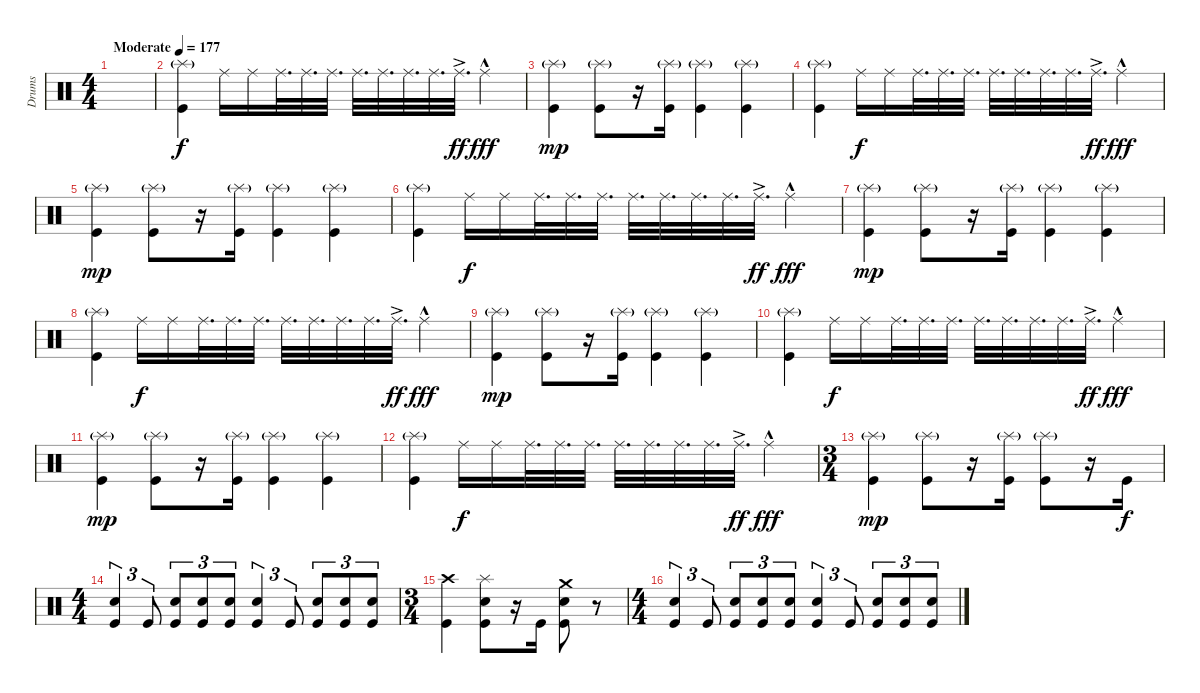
\track ("Drums" "Drums") {instrument percussion}
\staff {score}
\articulation defaults
\ts (4 4)
\tempo (177 "Moderate")
\clef neutral
\ks c
|
("Splash (hit)"{g} "Kick (hit)").4 "Ride (middle)".16{dy f} "Ride (middle)".16 "Ride (middle)".32{d} "Ride (middle)".32{d} "Ride (middle)".32{d} "Ride (middle)".32{d} "Ride (middle)".32{d} "Ride (middle)".32{d} "Ride (middle)".32{d} "Ride (middle)"{ac}.32{d dy ff} "Ride (middle)"{hac}.4{dy fff} |
("Splash (hit)"{g} "Kick (hit)").4{dy mp} ("Splash (hit)"{g} "Kick (hit)").8 r.16 ("Splash (hit)"{g} "Kick (hit)").16 ("Splash (hit)"{g} "Kick (hit)").4 ("Splash (hit)"{g} "Kick (hit)").4 |
("Splash (hit)"{g} "Kick (hit)").4 "Ride (middle)".16{dy f} "Ride (middle)".16 "Ride (middle)".32{d} "Ride (middle)".32{d} "Ride (middle)".32{d} "Ride (middle)".32{d} "Ride (middle)".32{d} "Ride (middle)".32{d} "Ride (middle)".32{d} "Ride (middle)"{ac}.32{d dy ff} "Ride (middle)"{hac}.4{dy fff} |
("Splash (hit)"{g} "Kick (hit)").4{dy mp} ("Splash (hit)"{g} "Kick (hit)").8 r.16 ("Splash (hit)"{g} "Kick (hit)").16 ("Splash (hit)"{g} "Kick (hit)").4 ("Splash (hit)"{g} "Kick (hit)").4 |
("Splash (hit)"{g} "Kick (hit)").4 "Ride (middle)".16{dy f} "Ride (middle)".16 "Ride (middle)".32{d} "Ride (middle)".32{d} "Ride (middle)".32{d} "Ride (middle)".32{d} "Ride (middle)".32{d} "Ride (middle)".32{d} "Ride (middle)".32{d} "Ride (middle)"{ac}.32{d dy ff} "Ride (middle)"{hac}.4{dy fff} |
("Splash (hit)"{g} "Kick (hit)").4{dy mp} ("Splash (hit)"{g} "Kick (hit)").8 r.16 ("Splash (hit)"{g} "Kick (hit)").16 ("Splash (hit)"{g} "Kick (hit)").4 ("Splash (hit)"{g} "Kick (hit)").4 |
("Splash (hit)"{g} "Kick (hit)").4 "Ride (middle)".16{dy f} "Ride (middle)".16 "Ride (middle)".32{d} "Ride (middle)".32{d} "Ride (middle)".32{d} "Ride (middle)".32{d} "Ride (middle)".32{d} "Ride (middle)".32{d} "Ride (middle)".32{d} "Ride (middle)"{ac}.32{d dy ff} "Ride (middle)"{hac}.4{dy fff} |
("Splash (hit)"{g} "Kick (hit)").4{dy mp} ("Splash (hit)"{g} "Kick (hit)").8 r.16 ("Splash (hit)"{g} "Kick (hit)").16 ("Splash (hit)"{g} "Kick (hit)").4 ("Splash (hit)"{g} "Kick (hit)").4 |
("Splash (hit)"{g} "Kick (hit)").4 "Ride (middle)".16{dy f} "Ride (middle)".16 "Ride (middle)".32{d} "Ride (middle)".32{d} "Ride (middle)".32{d} "Ride (middle)".32{d} "Ride (middle)".32{d} "Ride (middle)".32{d} "Ride (middle)".32{d} "Ride (middle)"{ac}.32{d dy ff} "Ride (middle)"{hac}.4{dy fff} |
("Splash (hit)"{g} "Kick (hit)").4{dy mp} ("Splash (hit)"{g} "Kick (hit)").8 r.16 ("Splash (hit)"{g} "Kick (hit)").16 ("Splash (hit)"{g} "Kick (hit)").4 ("Splash (hit)"{g} "Kick (hit)").4 |
("Splash (hit)"{g} "Kick (hit)").4 "Ride (middle)".16{dy f} "Ride (middle)".16 "Ride (middle)".32{d} "Ride (middle)".32{d} "Ride (middle)".32{d} "Ride (middle)".32{d} "Ride (middle)".32{d} "Ride (middle)".32{d} "Ride (middle)".32{d} "Ride (middle)"{ac}.32{d dy ff} "Ride (middle)"{hac}.4{dy fff} |
\ts (3 4)
("Splash (hit)"{g} "Kick (hit)").4{dy mp} ("Splash (hit)"{g} "Kick (hit)").8 r.16 ("Splash (hit)"{g} "Kick (hit)").16 ("Splash (hit)"{g} "Kick (hit)").8 r.16 "Kick (hit)".16{dy f} |
\ts (4 4)
("Snare (hit) 2" "Kick (hit)").4{tu (3 2)} "Kick (hit)".8{tu (3 2)} ("Snare (hit) 2" "Kick (hit)").8{tu (3 2)} ("Snare (hit) 2" "Kick (hit)").8{tu (3 2)} ("Snare (hit) 2" "Kick (hit)").8{tu (3 2)} ("Snare (hit) 2" "Kick (hit)").4{tu (3 2)} "Kick (hit)".8{tu (3 2)} ("Snare (hit) 2" "Kick (hit)").8{tu (3 2)} ("Snare (hit) 2" "Kick (hit)").8{tu (3 2)} ("Snare (hit) 2" "Kick (hit)").8{tu (3 2)} |
\ts (3 4)
("Crash high (hit)" "Kick (hit)").4 ("Splash (hit)" "Snare (hit) 2" "Kick (hit)").8 r.16 "Kick (hit)".16 ("Crash medium (hit)" "Snare (hit) 2" "Kick (hit)").8 r.8 |
\ts (4 4)
("Snare (hit) 2" "Kick (hit)").4{tu (3 2)} "Kick (hit)".8{tu (3 2)} ("Snare (hit) 2" "Kick (hit)").8{tu (3 2)} ("Snare (hit) 2" "Kick (hit)").8{tu (3 2)} ("Snare (hit) 2" "Kick (hit)").8{tu (3 2)} ("Snare (hit) 2" "Kick (hit)").4{tu (3 2)} "Kick (hit)".8{tu (3 2)} ("Snare (hit) 2" "Kick (hit)").8{tu (3 2)} ("Snare (hit) 2" "Kick (hit)").8{tu (3 2)} ("Snare (hit) 2" "Kick (hit)").8{tu (3 2)}
